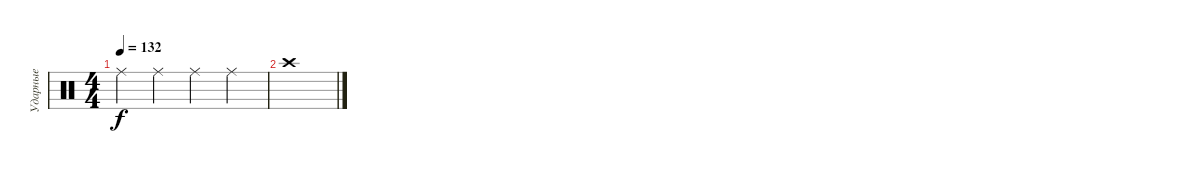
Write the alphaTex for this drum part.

\track ("Ударные" "Ударные") {instrument percussion}
\staff {score}
\articulation defaults
\ts (4 4)
\tempo 132
\clef neutral
\ks c "Ride (middle)".4{dy f} "Ride (middle)".4 "Ride (middle)".4 "Ride (middle)".4
|
"Crash high (hit)".1
